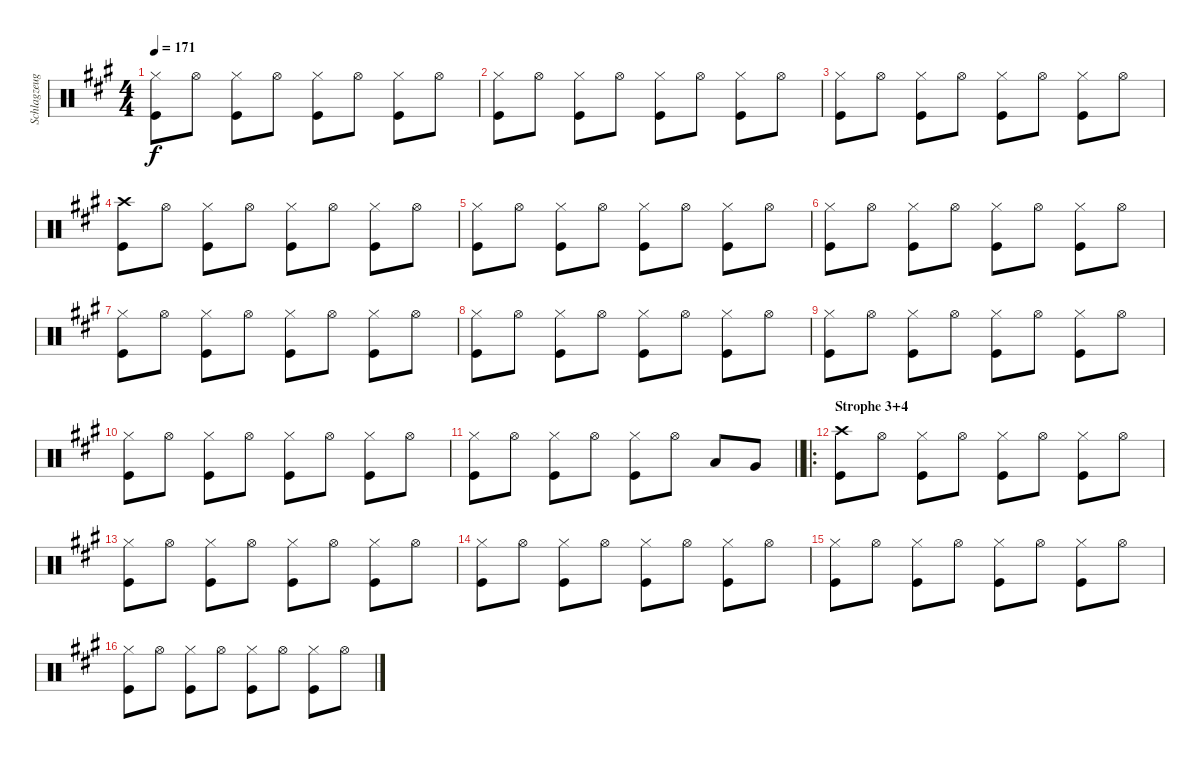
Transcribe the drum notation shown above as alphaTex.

\track ("Schlagzeug" "Schlagzeug") {instrument percussion}
\staff {score}
\articulation defaults
\ts (4 4)
\tempo 171
\clef neutral
\ks f#minor
("Hi-Hat (closed)" "Kick (hit)").8{dy f} "Hi-Hat (open)".8 ("Hi-Hat (closed)" "Kick (hit)").8 "Hi-Hat (open)".8 ("Hi-Hat (closed)" "Kick (hit)").8 "Hi-Hat (open)".8 ("Hi-Hat (closed)" "Kick (hit)").8 "Hi-Hat (open)".8 |
("Hi-Hat (closed)" "Kick (hit)").8 "Hi-Hat (open)".8 ("Hi-Hat (closed)" "Kick (hit)").8 "Hi-Hat (open)".8 ("Hi-Hat (closed)" "Kick (hit)").8 "Hi-Hat (open)".8 ("Hi-Hat (closed)" "Kick (hit)").8 "Hi-Hat (open)".8 |
("Hi-Hat (closed)" "Kick (hit)").8 "Hi-Hat (open)".8 ("Hi-Hat (closed)" "Kick (hit)").8 "Hi-Hat (open)".8 ("Hi-Hat (closed)" "Kick (hit)").8 "Hi-Hat (open)".8 ("Hi-Hat (closed)" "Kick (hit)").8 "Hi-Hat (open)".8 |
("Crash high (hit)" "Kick (hit)").8 "Hi-Hat (open)".8 ("Hi-Hat (closed)" "Kick (hit)").8 "Hi-Hat (open)".8 ("Hi-Hat (closed)" "Kick (hit)").8 "Hi-Hat (open)".8 ("Hi-Hat (closed)" "Kick (hit)").8 "Hi-Hat (open)".8 |
("Hi-Hat (closed)" "Kick (hit)").8 "Hi-Hat (open)".8 ("Hi-Hat (closed)" "Kick (hit)").8 "Hi-Hat (open)".8 ("Hi-Hat (closed)" "Kick (hit)").8 "Hi-Hat (open)".8 ("Hi-Hat (closed)" "Kick (hit)").8 "Hi-Hat (open)".8 |
("Hi-Hat (closed)" "Kick (hit)").8 "Hi-Hat (open)".8 ("Hi-Hat (closed)" "Kick (hit)").8 "Hi-Hat (open)".8 ("Hi-Hat (closed)" "Kick (hit)").8 "Hi-Hat (open)".8 ("Hi-Hat (closed)" "Kick (hit)").8 "Hi-Hat (open)".8 |
("Hi-Hat (closed)" "Kick (hit)").8 "Hi-Hat (open)".8 ("Hi-Hat (closed)" "Kick (hit)").8 "Hi-Hat (open)".8 ("Hi-Hat (closed)" "Kick (hit)").8 "Hi-Hat (open)".8 ("Hi-Hat (closed)" "Kick (hit)").8 "Hi-Hat (open)".8 |
("Hi-Hat (closed)" "Kick (hit)").8 "Hi-Hat (open)".8 ("Hi-Hat (closed)" "Kick (hit)").8 "Hi-Hat (open)".8 ("Hi-Hat (closed)" "Kick (hit)").8 "Hi-Hat (open)".8 ("Hi-Hat (closed)" "Kick (hit)").8 "Hi-Hat (open)".8 |
("Hi-Hat (closed)" "Kick (hit)").8 "Hi-Hat (open)".8 ("Hi-Hat (closed)" "Kick (hit)").8 "Hi-Hat (open)".8 ("Hi-Hat (closed)" "Kick (hit)").8 "Hi-Hat (open)".8 ("Hi-Hat (closed)" "Kick (hit)").8 "Hi-Hat (open)".8 |
("Hi-Hat (closed)" "Kick (hit)").8 "Hi-Hat (open)".8 ("Hi-Hat (closed)" "Kick (hit)").8 "Hi-Hat (open)".8 ("Hi-Hat (closed)" "Kick (hit)").8 "Hi-Hat (open)".8 ("Hi-Hat (closed)" "Kick (hit)").8 "Hi-Hat (open)".8 |
\barLineRight lightlight
("Hi-Hat (closed)" "Kick (hit)").8 "Hi-Hat (open)".8 ("Hi-Hat (closed)" "Kick (hit)").8 "Hi-Hat (open)".8 ("Hi-Hat (closed)" "Kick (hit)").8 "Hi-Hat (open)".8 "Low Tom (hit)".8 "Very Low Tom (hit)".8 |
\ro
\section ("" "Strophe 3+4")
("Crash high (hit)" "Kick (hit)").8 "Hi-Hat (open)".8 ("Hi-Hat (closed)" "Kick (hit)").8 "Hi-Hat (open)".8 ("Hi-Hat (closed)" "Kick (hit)").8 "Hi-Hat (open)".8 ("Hi-Hat (closed)" "Kick (hit)").8 "Hi-Hat (open)".8 |
("Hi-Hat (closed)" "Kick (hit)").8 "Hi-Hat (open)".8 ("Hi-Hat (closed)" "Kick (hit)").8 "Hi-Hat (open)".8 ("Hi-Hat (closed)" "Kick (hit)").8 "Hi-Hat (open)".8 ("Hi-Hat (closed)" "Kick (hit)").8 "Hi-Hat (open)".8 |
("Hi-Hat (closed)" "Kick (hit)").8 "Hi-Hat (open)".8 ("Hi-Hat (closed)" "Kick (hit)").8 "Hi-Hat (open)".8 ("Hi-Hat (closed)" "Kick (hit)").8 "Hi-Hat (open)".8 ("Hi-Hat (closed)" "Kick (hit)").8 "Hi-Hat (open)".8 |
("Hi-Hat (closed)" "Kick (hit)").8 "Hi-Hat (open)".8 ("Hi-Hat (closed)" "Kick (hit)").8 "Hi-Hat (open)".8 ("Hi-Hat (closed)" "Kick (hit)").8 "Hi-Hat (open)".8 ("Hi-Hat (closed)" "Kick (hit)").8 "Hi-Hat (open)".8 |
("Hi-Hat (closed)" "Kick (hit)").8 "Hi-Hat (open)".8 ("Hi-Hat (closed)" "Kick (hit)").8 "Hi-Hat (open)".8 ("Hi-Hat (closed)" "Kick (hit)").8 "Hi-Hat (open)".8 ("Hi-Hat (closed)" "Kick (hit)").8 "Hi-Hat (open)".8
